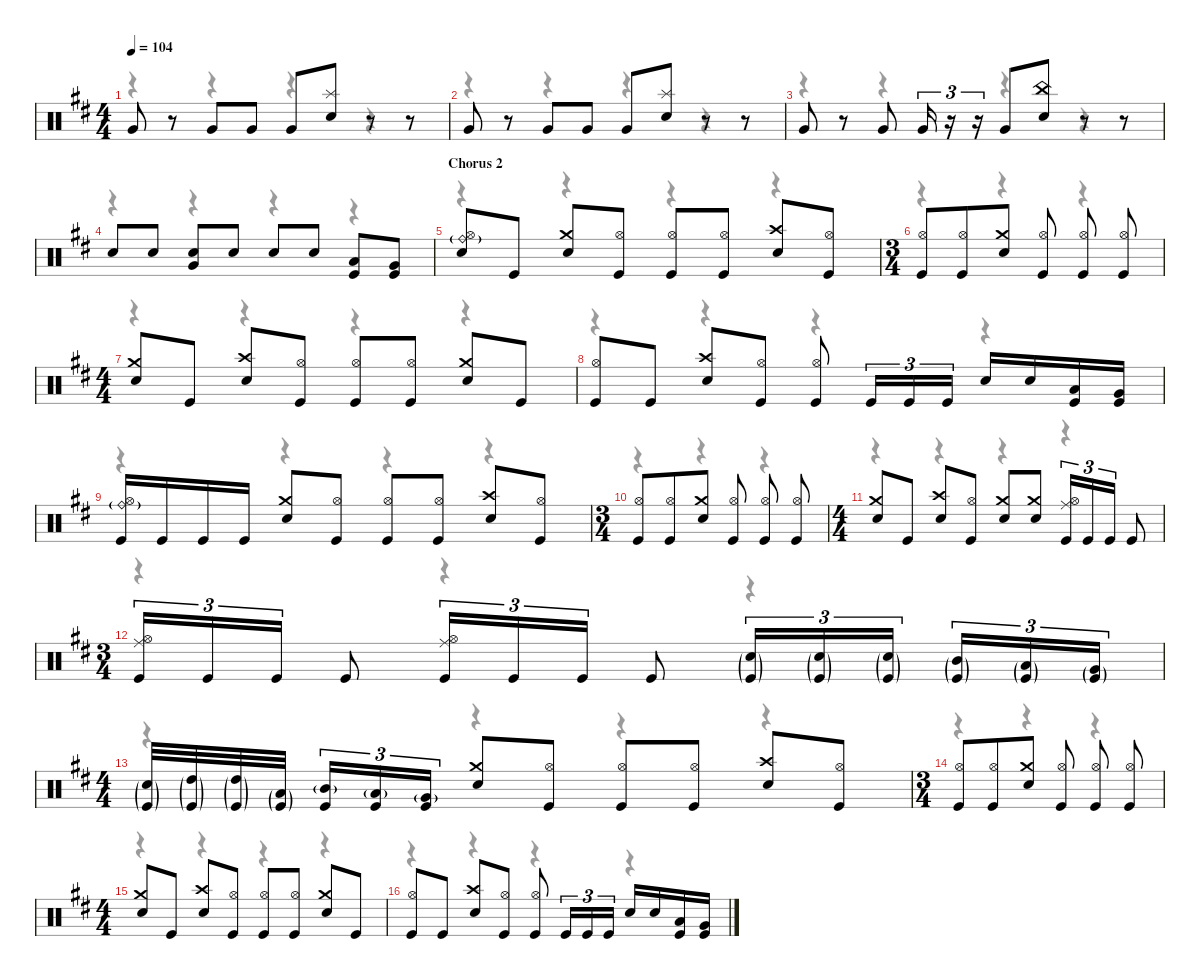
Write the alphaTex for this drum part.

\defaultSystemsLayout 4
\hideDynamics
\bracketExtendMode nobrackets
\singleTrackTrackNamePolicy hidden
\multiTrackTrackNamePolicy hidden
\firstSystemTrackNameMode fullname
\otherSystemsTrackNameOrientation horizontal
\track ("Drums" "drm.") {instrument percussion}
\staff {score}
\articulation defaults
\voice
\ts (4 4)
\tempo 104
\clef neutral
\ks bminor "Very Low Tom (hit)"{acc forcenatural}.8{dy f beam Up}
r.8{beam Up} "Very Low Tom (hit)"{acc forcenatural}.8{beam Up} "Very Low Tom (hit)"{acc forcenatural}.8{dy mp beam Up} "Very Low Tom (hit)"{acc forcenatural}.8{dy f beam Up} ("Splash (hit)"{acc forcenatural} "Snare (hit) 2"{acc forcenatural}).8{beam Up} r.8{beam Up} r.8{beam Up} |
"Very Low Tom (hit)"{acc forcenatural}.8{beam Up} r.8{beam Up} "Very Low Tom (hit)"{acc forcenatural}.8{beam Up} "Very Low Tom (hit)"{acc forcenatural}.8{dy mp beam Up} "Very Low Tom (hit)"{acc forcenatural}.8{dy f beam Up} ("Splash (hit)"{acc forcenatural} "Snare (hit) 2"{acc forcenatural}).8{beam Up} r.8{beam Up} r.8{beam Up} |
"Very Low Tom (hit)"{acc forcenatural}.8{beam Up} r.8{beam Up} "Very Low Tom (hit)"{acc forcenatural}.8{beam Up} "Very Low Tom (hit)"{acc forcenatural}.16{tu (3 2) dy mp beam Up} r.16{tu (3 2) beam Up} r.16{tu (3 2) beam Up} "Very Low Tom (hit)"{acc forcenatural}.8{dy f beam Up} ("China (hit)"{acc forcenatural} "Snare (hit) 2"{acc forcenatural}).8{beam Up} r.8{beam Up} r.8{beam Up} |
"Snare (hit) 2"{acc forcenatural}.8{dy p beam Up} "Snare (hit) 2"{acc forcenatural}.8{dy mp beam Up} ("Snare (hit) 2"{acc forcenatural} "Very Low Tom (hit)"{acc forcenatural}).8{beam Up} "Snare (hit) 2"{acc forcenatural}.8{dy mf beam Up} "Snare (hit) 2"{acc forcenatural}.8{beam Up} "Snare (hit) 2"{acc forcenatural}.8{dy f beam Up} ("Low Tom (hit)"{acc forcenatural} "Kick (hit)"{acc forcenatural}).8{beam Up} ("Very Low Tom (hit)"{acc forcenatural} "Kick (hit)"{acc forcenatural}).8{beam Up} |
\section ("" "Chorus 2")
("Ride (bell)"{g acc forcenatural} "Hi-Hat (open)"{acc forcenatural} "Snare (hit) 2"{acc forcenatural}).8{dy mp beam Up} "Kick (hit)"{acc forcenatural}.8{dy f beam Up} ("Crash medium (hit)"{acc forcenatural} "Snare (hit) 2"{acc forcenatural}).8{dy mp beam Up} ("Hi-Hat (open)"{acc forcenatural} "Kick (hit)"{acc forcenatural}).8{dy pp beam Up} ("Hi-Hat (open)"{acc forcenatural} "Kick (hit)"{acc forcenatural}).8{dy mp beam Up} ("Hi-Hat (open)"{acc forcenatural} "Kick (hit)"{acc forcenatural}).8{dy pp beam Up} ("Crash high (hit)"{acc forcenatural} "Snare (hit) 2"{acc forcenatural}).8{dy mp beam Up} ("Hi-Hat (open)"{acc forcenatural} "Kick (hit)"{acc forcenatural}).8{dy pp beam Up} |
\ts (3 4)
\beaming (8 3 1 1 1)
("Hi-Hat (open)"{acc forcenatural} "Kick (hit)"{acc forcenatural}).8{dy mp beam Up} ("Hi-Hat (open)"{acc forcenatural} "Kick (hit)"{acc forcenatural}).8{dy pp beam Up} ("Crash medium (hit)"{acc forcenatural} "Snare (hit) 2"{acc forcenatural}).8{dy mp beam Up} ("Hi-Hat (open)"{acc forcenatural} "Kick (hit)"{acc forcenatural}).8{dy pp beam Up} ("Hi-Hat (open)"{acc forcenatural} "Kick (hit)"{acc forcenatural}).8{dy mp beam Up} ("Hi-Hat (open)"{acc forcenatural} "Kick (hit)"{acc forcenatural}).8{dy pp beam Up} |
\ts (4 4)
\beaming (8 2 2 2 2)
("Crash medium (hit)"{acc forcenatural} "Snare (hit) 2"{acc forcenatural}).8{dy mp beam Up} "Kick (hit)"{acc forcenatural}.8{dy f beam Up} ("Crash high (hit)"{acc forcenatural} "Snare (hit) 2"{acc forcenatural}).8{dy mp beam Up} ("Hi-Hat (open)"{acc forcenatural} "Kick (hit)"{acc forcenatural}).8{dy pp beam Up} ("Hi-Hat (open)"{acc forcenatural} "Kick (hit)"{acc forcenatural}).8{dy mp beam Up} ("Hi-Hat (open)"{acc forcenatural} "Kick (hit)"{acc forcenatural}).8{dy pp beam Up} ("Crash medium (hit)"{acc forcenatural} "Snare (hit) 2"{acc forcenatural}).8{dy mp beam Up} "Kick (hit)"{acc forcenatural}.8{dy f beam Up} |
("Hi-Hat (open)"{acc forcenatural} "Kick (hit)"{acc forcenatural}).8{dy mp beam Up} "Kick (hit)"{acc forcenatural}.8{dy f beam Up} ("Crash high (hit)"{acc forcenatural} "Snare (hit) 2"{acc forcenatural}).8{dy mp beam Up} ("Hi-Hat (open)"{acc forcenatural} "Kick (hit)"{acc forcenatural}).8{dy pp beam Up} ("Hi-Hat (open)"{acc forcenatural} "Kick (hit)"{acc forcenatural}).8{dy mp beam Up} "Kick (hit)"{acc forcenatural}.16{tu (3 2) dy f beam Up} "Kick (hit)"{acc forcenatural}.16{tu (3 2) beam Up} "Kick (hit)"{acc forcenatural}.16{tu (3 2) beam Up} "Snare (hit) 2"{acc forcenatural}.16{beam Up} "Snare (hit) 2"{acc forcenatural}.16{beam Up} ("Low Tom (hit)"{acc forcenatural} "Kick (hit)"{acc forcenatural}).16{dy mp beam Up} ("Very Low Tom (hit)"{acc forcenatural} "Kick (hit)"{acc forcenatural}).16{beam Up} |
("Ride (bell)"{g acc forcenatural} "Hi-Hat (open)"{acc forcenatural} "Kick (hit)"{acc forcenatural}).16{beam Up} "Kick (hit)"{acc forcenatural}.16{dy f beam Up} "Kick (hit)"{acc forcenatural}.16{beam Up} "Kick (hit)"{acc forcenatural}.16{beam Up} ("Crash medium (hit)"{acc forcenatural} "Snare (hit) 2"{acc forcenatural}).8{dy mp beam Up} ("Hi-Hat (open)"{acc forcenatural} "Kick (hit)"{acc forcenatural}).8{dy pp beam Up} ("Hi-Hat (open)"{acc forcenatural} "Kick (hit)"{acc forcenatural}).8{dy mp beam Up} ("Hi-Hat (open)"{acc forcenatural} "Kick (hit)"{acc forcenatural}).8{dy pp beam Up} ("Crash high (hit)"{acc forcenatural} "Snare (hit) 2"{acc forcenatural}).8{dy mp beam Up} ("Hi-Hat (open)"{acc forcenatural} "Kick (hit)"{acc forcenatural}).8{dy pp beam Up} |
\ts (3 4)
\beaming (8 3 1 1 1)
("Hi-Hat (open)"{acc forcenatural} "Kick (hit)"{acc forcenatural}).8{dy mp beam Up} ("Hi-Hat (open)"{acc forcenatural} "Kick (hit)"{acc forcenatural}).8{dy pp beam Up} ("Crash medium (hit)"{acc forcenatural} "Snare (hit) 2"{acc forcenatural}).8{dy mp beam Up} ("Hi-Hat (open)"{acc forcenatural} "Kick (hit)"{acc forcenatural}).8{dy pp beam Up} ("Hi-Hat (open)"{acc forcenatural} "Kick (hit)"{acc forcenatural}).8{dy mp beam Up} ("Hi-Hat (open)"{acc forcenatural} "Kick (hit)"{acc forcenatural}).8{dy pp beam Up} |
\ts (4 4)
\beaming (8 2 2 2 2)
("Crash medium (hit)"{acc forcenatural} "Snare (hit) 2"{acc forcenatural}).8{dy mp beam Up} "Kick (hit)"{acc forcenatural}.8{dy f beam Up} ("Crash high (hit)"{acc forcenatural} "Snare (hit) 2"{acc forcenatural}).8{dy mp beam Up} ("Hi-Hat (open)"{acc forcenatural} "Kick (hit)"{acc forcenatural}).8{dy pp beam Up} ("Crash medium (hit)"{acc forcenatural} "Snare (hit) 2"{acc forcenatural}).8{dy mp beam Up} ("Crash medium (hit)"{acc forcenatural} "Snare (hit) 2"{acc forcenatural}).8{beam Up} ("Ride (middle)"{acc forcenatural} "Hi-Hat (open)"{acc forcenatural} "Kick (hit)"{acc forcenatural}).16{tu (3 2) dy mf beam Up} "Kick (hit)"{acc forcenatural}.16{tu (3 2) dy f beam Up} "Kick (hit)"{acc forcenatural}.16{tu (3 2) beam Up} "Kick (hit)"{acc forcenatural}.8{beam Up} |
\ts (3 4)
\beaming (8 3 1 1 1)
("Ride (middle)"{acc forcenatural} "Hi-Hat (open)"{acc forcenatural} "Kick (hit)"{acc forcenatural}).16{tu (3 2) dy mf beam Up} "Kick (hit)"{acc forcenatural}.16{tu (3 2) dy f beam Up} "Kick (hit)"{acc forcenatural}.16{tu (3 2) beam Up} "Kick (hit)"{acc forcenatural}.8{beam Up} ("Ride (middle)"{acc forcenatural} "Hi-Hat (open)"{acc forcenatural} "Kick (hit)"{acc forcenatural}).16{tu (3 2) dy mf beam Up} "Kick (hit)"{acc forcenatural}.16{tu (3 2) dy f beam Up} "Kick (hit)"{acc forcenatural}.16{tu (3 2) beam Up} "Kick (hit)"{acc forcenatural}.8{beam Up} ("Snare (hit) 2"{g acc forcenatural} "Kick (hit)"{g acc forcenatural}).16{tu (3 2) beam Up} ("Snare (hit) 2"{g acc forcenatural} "Kick (hit)"{g acc forcenatural}).16{tu (3 2) beam Up} ("Snare (hit) 2"{g acc forcenatural} "Kick (hit)"{g acc forcenatural}).16{tu (3 2) beam Up} ("Mid Tom (hit)"{g acc forcenatural} "Kick (hit)"{g acc forcenatural}).16{tu (3 2) beam Up} ("Low Tom (hit)"{g acc forcenatural} "Kick (hit)"{g acc forcenatural}).16{tu (3 2) beam Up} ("Very Low Tom (hit)"{g acc forcenatural} "Kick (hit)"{g acc forcenatural}).16{tu (3 2) beam Up} |
\ts (4 4)
\beaming (8 2 2 2 2)
("Snare (hit) 2"{g acc forcenatural} "Kick (hit)"{g acc forcenatural}).32{dy mf beam Up} ("High Tom (hit)"{g acc forcenatural} "Kick (hit)"{g acc forcenatural}).32{beam Up} ("High Tom (hit)"{g acc forcenatural} "Kick (hit)"{g acc forcenatural}).32{beam Up} ("Low Tom (hit)"{g acc forcenatural} "Kick (hit)"{g acc forcenatural}).32{beam Up} ("Mid Tom (hit)"{g acc forcenatural} "Kick (hit)"{acc forcenatural}).16{tu (3 2) dy mp beam Up} ("Low Tom (hit)"{g acc forcenatural} "Kick (hit)"{acc forcenatural}).16{tu (3 2) dy mf beam Up} ("Very Low Tom (hit)"{g acc forcenatural} "Kick (hit)"{acc forcenatural}).16{tu (3 2) beam Up} ("Crash medium (hit)"{acc forcenatural} "Snare (hit) 2"{acc forcenatural}).8{dy mp beam Up} ("Hi-Hat (open)"{acc forcenatural} "Kick (hit)"{acc forcenatural}).8{dy pp beam Up} ("Hi-Hat (open)"{acc forcenatural} "Kick (hit)"{acc forcenatural}).8{dy mp beam Up} ("Hi-Hat (open)"{acc forcenatural} "Kick (hit)"{acc forcenatural}).8{dy pp beam Up} ("Crash high (hit)"{acc forcenatural} "Snare (hit) 2"{acc forcenatural}).8{dy mp beam Up} ("Hi-Hat (open)"{acc forcenatural} "Kick (hit)"{acc forcenatural}).8{dy pp beam Up} |
\ts (3 4)
\beaming (8 3 1 1 1)
("Hi-Hat (open)"{acc forcenatural} "Kick (hit)"{acc forcenatural}).8{dy mp beam Up} ("Hi-Hat (open)"{acc forcenatural} "Kick (hit)"{acc forcenatural}).8{dy pp beam Up} ("Crash medium (hit)"{acc forcenatural} "Snare (hit) 2"{acc forcenatural}).8{dy mp beam Up} ("Hi-Hat (open)"{acc forcenatural} "Kick (hit)"{acc forcenatural}).8{dy pp beam Up} ("Hi-Hat (open)"{acc forcenatural} "Kick (hit)"{acc forcenatural}).8{dy mp beam Up} ("Hi-Hat (open)"{acc forcenatural} "Kick (hit)"{acc forcenatural}).8{dy pp beam Up} |
\ts (4 4)
\beaming (8 2 2 2 2)
("Crash medium (hit)"{acc forcenatural} "Snare (hit) 2"{acc forcenatural}).8{dy mp beam Up} "Kick (hit)"{acc forcenatural}.8{dy f beam Up} ("Crash high (hit)"{acc forcenatural} "Snare (hit) 2"{acc forcenatural}).8{dy mp beam Up} ("Hi-Hat (open)"{acc forcenatural} "Kick (hit)"{acc forcenatural}).8{dy pp beam Up} ("Hi-Hat (open)"{acc forcenatural} "Kick (hit)"{acc forcenatural}).8{dy mp beam Up} ("Hi-Hat (open)"{acc forcenatural} "Kick (hit)"{acc forcenatural}).8{dy pp beam Up} ("Crash medium (hit)"{acc forcenatural} "Snare (hit) 2"{acc forcenatural}).8{dy mp beam Up} "Kick (hit)"{acc forcenatural}.8{dy f beam Up} |
("Hi-Hat (open)"{acc forcenatural} "Kick (hit)"{acc forcenatural}).8{dy mp beam Up} "Kick (hit)"{acc forcenatural}.8{dy f beam Up} ("Crash high (hit)"{acc forcenatural} "Snare (hit) 2"{acc forcenatural}).8{dy mp beam Up} ("Hi-Hat (open)"{acc forcenatural} "Kick (hit)"{acc forcenatural}).8{dy pp beam Up} ("Hi-Hat (open)"{acc forcenatural} "Kick (hit)"{acc forcenatural}).8{dy mp beam Up} "Kick (hit)"{acc forcenatural}.16{tu (3 2) dy f beam Up} "Kick (hit)"{acc forcenatural}.16{tu (3 2) beam Up} "Kick (hit)"{acc forcenatural}.16{tu (3 2) beam Up} "Snare (hit) 2"{acc forcenatural}.16{beam Up} "Snare (hit) 2"{acc forcenatural}.16{beam Up} ("Low Tom (hit)"{acc forcenatural} "Kick (hit)"{acc forcenatural}).16{dy mp beam Up} ("Very Low Tom (hit)"{acc forcenatural} "Kick (hit)"{acc forcenatural}).16{beam Up}
\voice
\clef neutral
\ottava regular
\simile none
\ks bminor
r.4{dy mf beam Down} r.4{beam Down} r.4{beam Down} r.4{beam Down} |
r.4{beam Down} r.4{beam Down} r.4{beam Down} r.4{beam Down} |
r.4{beam Down} r.4{beam Down} r.4{beam Down} r.4{beam Down} |
r.4{beam Down} r.4{beam Down} r.4{beam Down} r.4{beam Down} |
r.4{beam Down} r.4{beam Down} r.4{beam Down} r.4{beam Down} |
r.4{beam Down} r.4{beam Down} r.4{beam Down} |
r.4{beam Down} r.4{beam Down} r.4{beam Down} r.4{beam Down} |
r.4{beam Down} r.4{beam Down} r.4{beam Down} r.4{beam Down} |
r.4{beam Down} r.4{beam Down} r.4{beam Down} r.4{beam Down} |
r.4{beam Down} r.4{beam Down} r.4{beam Down} |
r.4{beam Down} r.4{beam Down} r.4{beam Down} r.4{beam Down} |
r.4{beam Down} r.4{beam Down} r.4{beam Down} |
r.4{beam Down} r.4{beam Down} r.4{beam Down} r.4{beam Down} |
r.4{beam Down} r.4{beam Down} r.4{beam Down} |
r.4{beam Down} r.4{beam Down} r.4{beam Down} r.4{beam Down} |
r.4{beam Down} r.4{beam Down} r.4{beam Down} r.4{beam Down}
